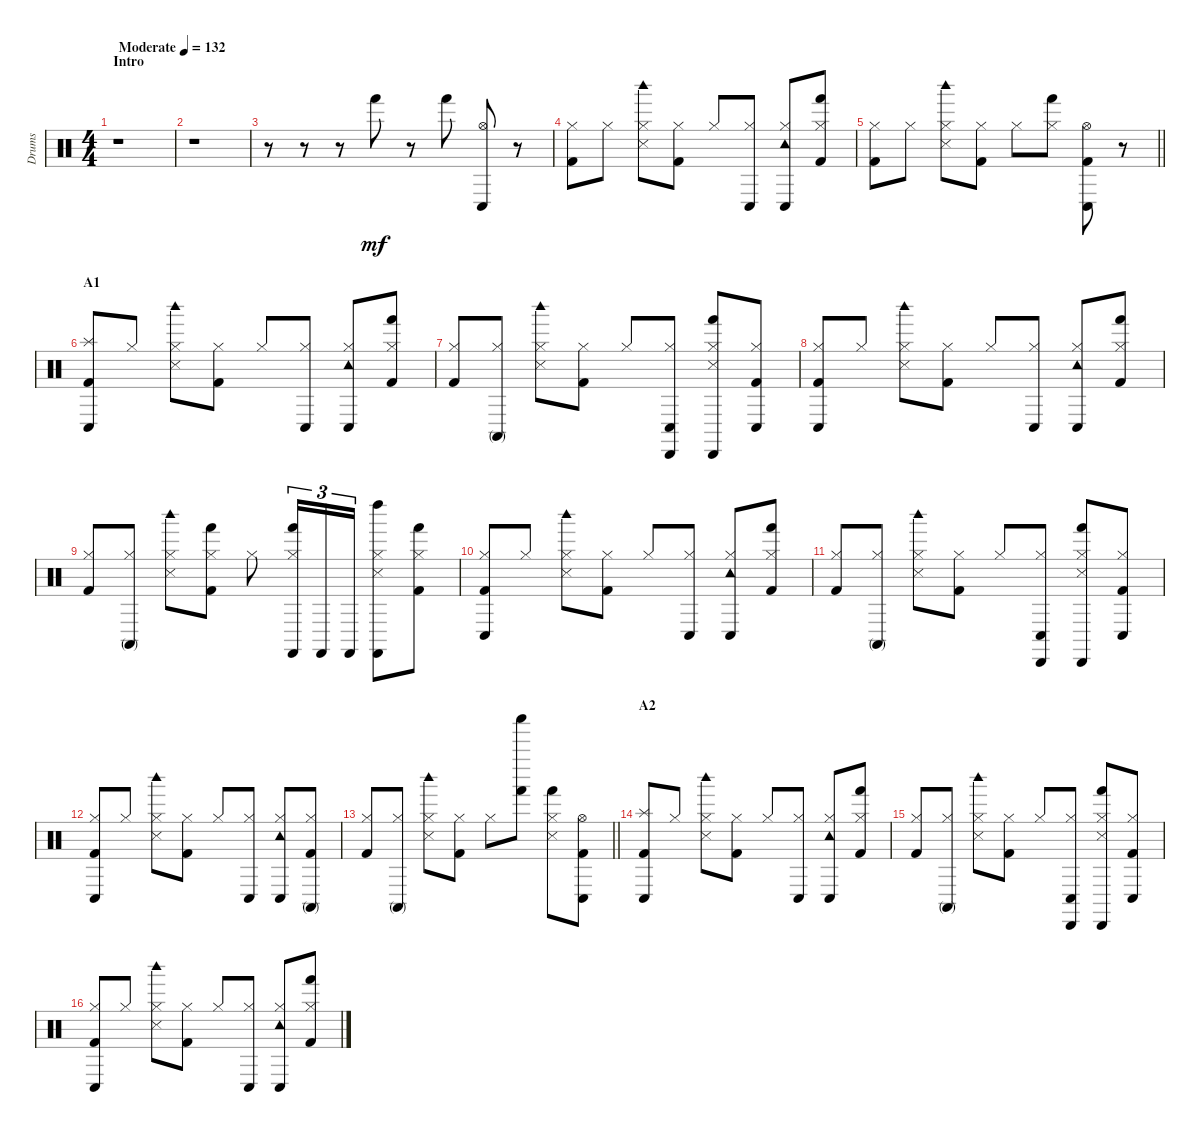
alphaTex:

\track ("Drums" "Drums") {instrument percussion}
\staff {score}
\articulation defaults
\ts (4 4)
\section ("" "Intro")
\tempo (132 "Moderate")
\clef neutral
\ks c
r.1{dy mf} |
r.1 |
r.8 r.8 r.8 "Hand (hit)".8 r.8 "Hand (hit)".8 ("Hi-Hat (open)" "Conga low (hit)").8 r.8 |
("Hi-Hat (closed)" "Kick (hit) 2").8 "Hi-Hat (closed)".8 ("Hi-Hat (closed)" "Snare (side stick) 3" "Woodblock high (hit)").8 ("Hi-Hat (closed)" "Kick (hit) 2").8 "Hi-Hat (closed)".8 ("Hi-Hat (closed)" "Conga low (hit)").8 ("Hi-Hat (closed)" "Tambourine (hit)" "Conga low (hit)").8 ("Hi-Hat (closed)" "Kick (hit) 2" "Hand (hit)").8 |
\barLineRight lightlight
("Hi-Hat (closed)" "Kick (hit) 2").8 "Hi-Hat (closed)".8 ("Hi-Hat (closed)" "Snare (side stick) 3" "Woodblock high (hit)").8 ("Hi-Hat (closed)" "Kick (hit) 2").8 "Hi-Hat (closed)".8 ("Hi-Hat (closed)" "Hand (hit)").8 ("Hi-Hat (open)" "Kick (hit) 2" "Conga low (hit)").8 r.8 |
\section ("" "A1")
("Splash (hit)" "Kick (hit) 2" "Conga low (hit)").8 "Hi-Hat (closed)".8 ("Hi-Hat (closed)" "Snare (side stick) 3" "Woodblock high (hit)").8 ("Hi-Hat (closed)" "Kick (hit) 2").8 "Hi-Hat (closed)".8 ("Hi-Hat (closed)" "Conga low (hit)").8 ("Hi-Hat (closed)" "Tambourine (hit)" "Conga low (hit)").8 ("Hi-Hat (closed)" "Kick (hit) 2" "Hand (hit)").8 |
("Hi-Hat (closed)" "Kick (hit) 2").8 ("Hi-Hat (closed)" "Conga high (mute)").8 ("Hi-Hat (closed)" "Snare (side stick) 3" "Woodblock high (hit)").8 ("Hi-Hat (closed)" "Kick (hit) 2").8 "Hi-Hat (closed)".8 ("Hi-Hat (closed)" "Cabasa (hit)" "Conga low (hit)").8 ("Hi-Hat (closed)" "Snare (side stick) 3" "Cabasa (hit)" "Hand (hit)").8 ("Hi-Hat (closed)" "Kick (hit) 2" "Conga low (hit)").8 |
("Hi-Hat (closed)" "Kick (hit) 2" "Conga low (hit)").8 "Hi-Hat (closed)".8 ("Hi-Hat (closed)" "Snare (side stick) 3" "Woodblock high (hit)").8 ("Hi-Hat (closed)" "Kick (hit) 2").8 "Hi-Hat (closed)".8 ("Hi-Hat (closed)" "Conga low (hit)").8 ("Hi-Hat (closed)" "Tambourine (hit)" "Conga low (hit)").8 ("Hi-Hat (closed)" "Kick (hit) 2" "Hand (hit)").8 |
("Hi-Hat (closed)" "Kick (hit) 2").8 ("Hi-Hat (closed)" "Conga high (mute)").8 ("Hi-Hat (closed)" "Snare (side stick) 3" "Woodblock high (hit)").8 ("Hi-Hat (closed)" "Kick (hit) 2" "Hand (hit)").8 "Hi-Hat (closed)".8 ("Hi-Hat (closed)" "Castanets (hit)" "Hand (hit)").16{tu (3 2)} "Castanets (hit)".16{tu (3 2)} "Castanets (hit)".16{tu (3 2)} ("Hi-Hat (closed)" "Snare (side stick) 3" "Castanets (hit)" "Left Maraca (hit)").8 ("Hi-Hat (closed)" "Kick (hit) 2" "Hand (hit)").8 |
("Hi-Hat (closed)" "Kick (hit) 2" "Conga low (hit)").8 "Hi-Hat (closed)".8 ("Hi-Hat (closed)" "Snare (side stick) 3" "Woodblock high (hit)").8 ("Hi-Hat (closed)" "Kick (hit) 2").8 "Hi-Hat (closed)".8 ("Hi-Hat (closed)" "Conga low (hit)").8 ("Hi-Hat (closed)" "Tambourine (hit)" "Conga low (hit)").8 ("Hi-Hat (closed)" "Kick (hit) 2" "Hand (hit)").8 |
("Hi-Hat (closed)" "Kick (hit) 2").8 ("Hi-Hat (closed)" "Conga high (mute)").8 ("Hi-Hat (closed)" "Snare (side stick) 3" "Woodblock high (hit)").8 ("Hi-Hat (closed)" "Kick (hit) 2").8 "Hi-Hat (closed)".8 ("Hi-Hat (closed)" "Cabasa (hit)" "Conga low (hit)").8 ("Hi-Hat (closed)" "Snare (side stick) 3" "Cabasa (hit)" "Hand (hit)").8 ("Hi-Hat (closed)" "Kick (hit) 2" "Conga low (hit)").8 |
("Hi-Hat (closed)" "Kick (hit) 2" "Conga low (hit)").8 "Hi-Hat (closed)".8 ("Hi-Hat (closed)" "Snare (side stick) 3" "Woodblock high (hit)").8 ("Hi-Hat (closed)" "Kick (hit) 2").8 "Hi-Hat (closed)".8 ("Hi-Hat (closed)" "Conga low (hit)").8 ("Hi-Hat (closed)" "Tambourine (hit)" "Conga low (hit)").8 ("Hi-Hat (closed)" "Kick (hit) 2" "Conga high (mute)").8 |
\barLineRight lightlight
("Hi-Hat (closed)" "Kick (hit) 2").8 ("Hi-Hat (closed)" "Conga high (mute)").8 ("Hi-Hat (closed)" "Snare (side stick) 3" "Woodblock high (hit)").8 ("Hi-Hat (closed)" "Kick (hit) 2").8 "Hi-Hat (closed)".8 ("Shaker (hit)" "Hand (hit)").8 ("Hi-Hat (closed)" "Snare (side stick) 3" "Hand (hit)").8 ("Hi-Hat (open)" "Kick (hit) 2" "Conga low (hit)").8 |
\section ("" "A2")
("Splash (hit)" "Kick (hit) 2" "Conga low (hit)").8 "Hi-Hat (closed)".8 ("Hi-Hat (closed)" "Snare (side stick) 3" "Woodblock high (hit)").8 ("Hi-Hat (closed)" "Kick (hit) 2").8 "Hi-Hat (closed)".8 ("Hi-Hat (closed)" "Conga low (hit)").8 ("Hi-Hat (closed)" "Tambourine (hit)" "Conga low (hit)").8 ("Hi-Hat (closed)" "Kick (hit) 2" "Hand (hit)").8 |
("Hi-Hat (closed)" "Kick (hit) 2").8 ("Hi-Hat (closed)" "Conga high (mute)").8 ("Hi-Hat (closed)" "Snare (side stick) 3" "Woodblock high (hit)").8 ("Hi-Hat (closed)" "Kick (hit) 2").8 "Hi-Hat (closed)".8 ("Hi-Hat (closed)" "Cabasa (hit)" "Conga low (hit)").8 ("Hi-Hat (closed)" "Snare (side stick) 3" "Cabasa (hit)" "Hand (hit)").8 ("Hi-Hat (closed)" "Kick (hit) 2" "Conga low (hit)").8 |
("Hi-Hat (closed)" "Kick (hit) 2" "Conga low (hit)").8 "Hi-Hat (closed)".8 ("Hi-Hat (closed)" "Snare (side stick) 3" "Woodblock high (hit)").8 ("Hi-Hat (closed)" "Kick (hit) 2").8 "Hi-Hat (closed)".8 ("Hi-Hat (closed)" "Conga low (hit)").8 ("Hi-Hat (closed)" "Tambourine (hit)" "Conga low (hit)").8 ("Hi-Hat (closed)" "Kick (hit) 2" "Hand (hit)").8
